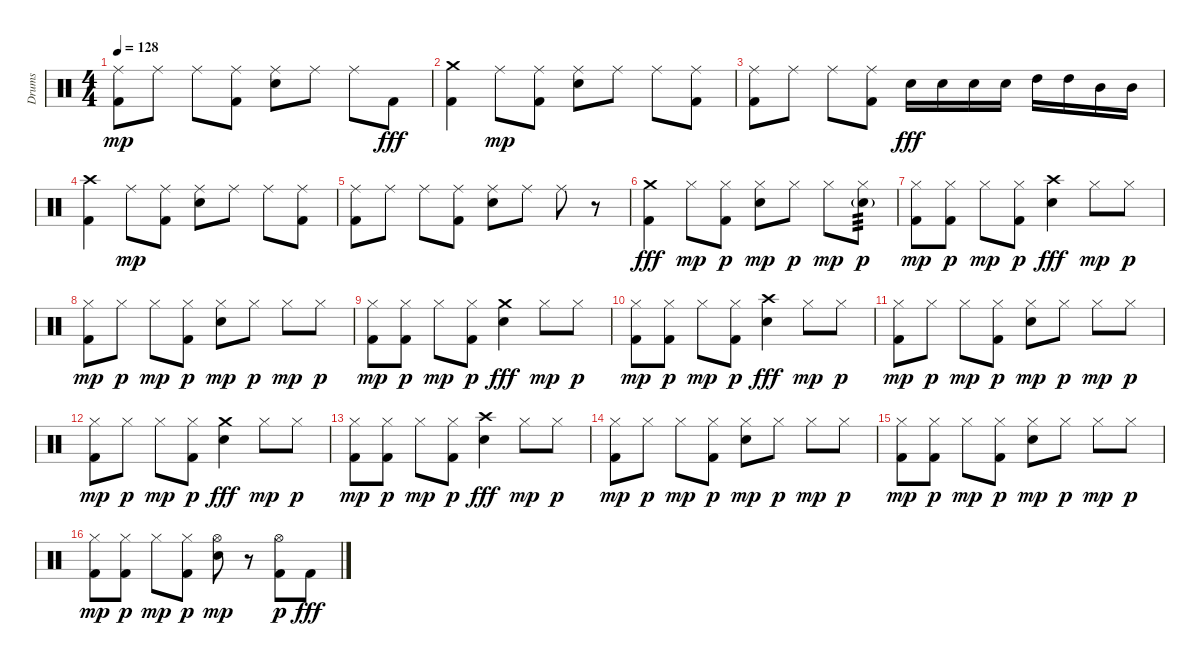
\track ("Drums" "Drums") {instrument percussion}
\staff {score}
\articulation defaults
\ts (4 4)
\tempo 128
\clef neutral
\ks c
("Kick (hit) 2" "Ride (middle)").8{dy mp} "Ride (middle)".8 "Ride (middle)".8 ("Kick (hit) 2" "Ride (middle)").8 ("Electric Snare (hit)" "Ride (middle)").8 "Ride (middle)".8 "Ride (middle)".8 "Kick (hit) 2".8{dy fff} |
("Kick (hit) 2" "Crash medium (hit)").4 "Ride (middle)".8{dy mp} ("Kick (hit) 2" "Ride (middle)").8 ("Electric Snare (hit)" "Ride (middle)").8 "Ride (middle)".8 "Ride (middle)".8 ("Kick (hit) 2" "Ride (middle)").8 |
("Kick (hit) 2" "Ride (middle)").8 "Ride (middle)".8 "Ride (middle)".8 ("Kick (hit) 2" "Ride (middle)").8 "Electric Snare (hit)".16{dy fff} "Electric Snare (hit)".16 "Electric Snare (hit)".16 "Electric Snare (hit)".16 "High Tom (hit)".16 "High Tom (hit)".16 "Mid Tom (hit)".16 "Mid Tom (hit)".16 |
("Kick (hit) 2" "Crash high (hit)").4 "Ride (middle)".8{dy mp} ("Kick (hit) 2" "Ride (middle)").8 ("Electric Snare (hit)" "Ride (middle)").8 "Ride (middle)".8 "Ride (middle)".8 ("Kick (hit) 2" "Ride (middle)").8 |
("Kick (hit) 2" "Ride (middle)").8 "Ride (middle)".8 "Ride (middle)".8 ("Kick (hit) 2" "Ride (middle)").8 ("Electric Snare (hit)" "Ride (middle)").8 "Ride (middle)".8 "Ride (middle)".8 r.8 |
("Kick (hit) 2" "Crash medium (hit)").4{dy fff} "Hi-Hat (closed)".8{dy mp} ("Kick (hit) 2" "Hi-Hat (closed)").8{dy p} ("Electric Snare (hit)" "Hi-Hat (closed)").8{dy mp} "Hi-Hat (closed)".8{dy p} "Hi-Hat (closed)".8{dy mp} ("Electric Snare (hit)"{g} "Hi-Hat (closed)").8{tp 3 dy p} |
("Kick (hit) 2" "Hi-Hat (closed)").8{dy mp} ("Kick (hit) 2" "Hi-Hat (closed)").8{dy p} "Hi-Hat (closed)".8{dy mp} ("Kick (hit) 2" "Hi-Hat (closed)").8{dy p} ("Electric Snare (hit)" "Crash high (hit)").4{dy fff} "Hi-Hat (closed)".8{dy mp} "Hi-Hat (closed)".8{dy p} |
("Kick (hit) 2" "Hi-Hat (closed)").8{dy mp} "Hi-Hat (closed)".8{dy p} "Hi-Hat (closed)".8{dy mp} ("Kick (hit) 2" "Hi-Hat (closed)").8{dy p} ("Electric Snare (hit)" "Hi-Hat (closed)").8{dy mp} "Hi-Hat (closed)".8{dy p} "Hi-Hat (closed)".8{dy mp} "Hi-Hat (closed)".8{dy p} |
("Kick (hit) 2" "Hi-Hat (closed)").8{dy mp} ("Kick (hit) 2" "Hi-Hat (closed)").8{dy p} "Hi-Hat (closed)".8{dy mp} ("Kick (hit) 2" "Hi-Hat (closed)").8{dy p} ("Electric Snare (hit)" "Crash medium (hit)").4{dy fff} "Hi-Hat (closed)".8{dy mp} "Hi-Hat (closed)".8{dy p} |
("Kick (hit) 2" "Hi-Hat (closed)").8{dy mp} ("Kick (hit) 2" "Hi-Hat (closed)").8{dy p} "Hi-Hat (closed)".8{dy mp} ("Kick (hit) 2" "Hi-Hat (closed)").8{dy p} ("Electric Snare (hit)" "Crash high (hit)").4{dy fff} "Hi-Hat (closed)".8{dy mp} "Hi-Hat (closed)".8{dy p} |
("Kick (hit) 2" "Hi-Hat (closed)").8{dy mp} "Hi-Hat (closed)".8{dy p} "Hi-Hat (closed)".8{dy mp} ("Kick (hit) 2" "Hi-Hat (closed)").8{dy p} ("Electric Snare (hit)" "Hi-Hat (closed)").8{dy mp} "Hi-Hat (closed)".8{dy p} "Hi-Hat (closed)".8{dy mp} "Hi-Hat (closed)".8{dy p} |
("Kick (hit) 2" "Hi-Hat (closed)").8{dy mp} "Hi-Hat (closed)".8{dy p} "Hi-Hat (closed)".8{dy mp} ("Kick (hit) 2" "Hi-Hat (closed)").8{dy p} ("Electric Snare (hit)" "Crash medium (hit)").4{dy fff} "Hi-Hat (closed)".8{dy mp} "Hi-Hat (closed)".8{dy p} |
("Kick (hit) 2" "Hi-Hat (closed)").8{dy mp} ("Kick (hit) 2" "Hi-Hat (closed)").8{dy p} "Hi-Hat (closed)".8{dy mp} ("Kick (hit) 2" "Hi-Hat (closed)").8{dy p} ("Electric Snare (hit)" "Crash high (hit)").4{dy fff} "Hi-Hat (closed)".8{dy mp} "Hi-Hat (closed)".8{dy p} |
("Kick (hit) 2" "Hi-Hat (closed)").8{dy mp} "Hi-Hat (closed)".8{dy p} "Hi-Hat (closed)".8{dy mp} ("Kick (hit) 2" "Hi-Hat (closed)").8{dy p} ("Electric Snare (hit)" "Hi-Hat (closed)").8{dy mp} "Hi-Hat (closed)".8{dy p} "Hi-Hat (closed)".8{dy mp} "Hi-Hat (closed)".8{dy p} |
("Kick (hit) 2" "Hi-Hat (closed)").8{dy mp} ("Kick (hit) 2" "Hi-Hat (closed)").8{dy p} "Hi-Hat (closed)".8{dy mp} ("Kick (hit) 2" "Hi-Hat (closed)").8{dy p} ("Electric Snare (hit)" "Hi-Hat (closed)").8{dy mp} "Hi-Hat (closed)".8{dy p} "Hi-Hat (closed)".8{dy mp} "Hi-Hat (closed)".8{dy p} |
("Kick (hit) 2" "Hi-Hat (closed)").8{dy mp} ("Kick (hit) 2" "Hi-Hat (closed)").8{dy p} "Hi-Hat (closed)".8{dy mp} ("Kick (hit) 2" "Hi-Hat (closed)").8{dy p} ("Electric Snare (hit)" "Hi-Hat (open)").8{dy mp} r.8 ("Kick (hit) 2" "Hi-Hat (open)").8{dy p} "Kick (hit) 2".8{dy fff}
